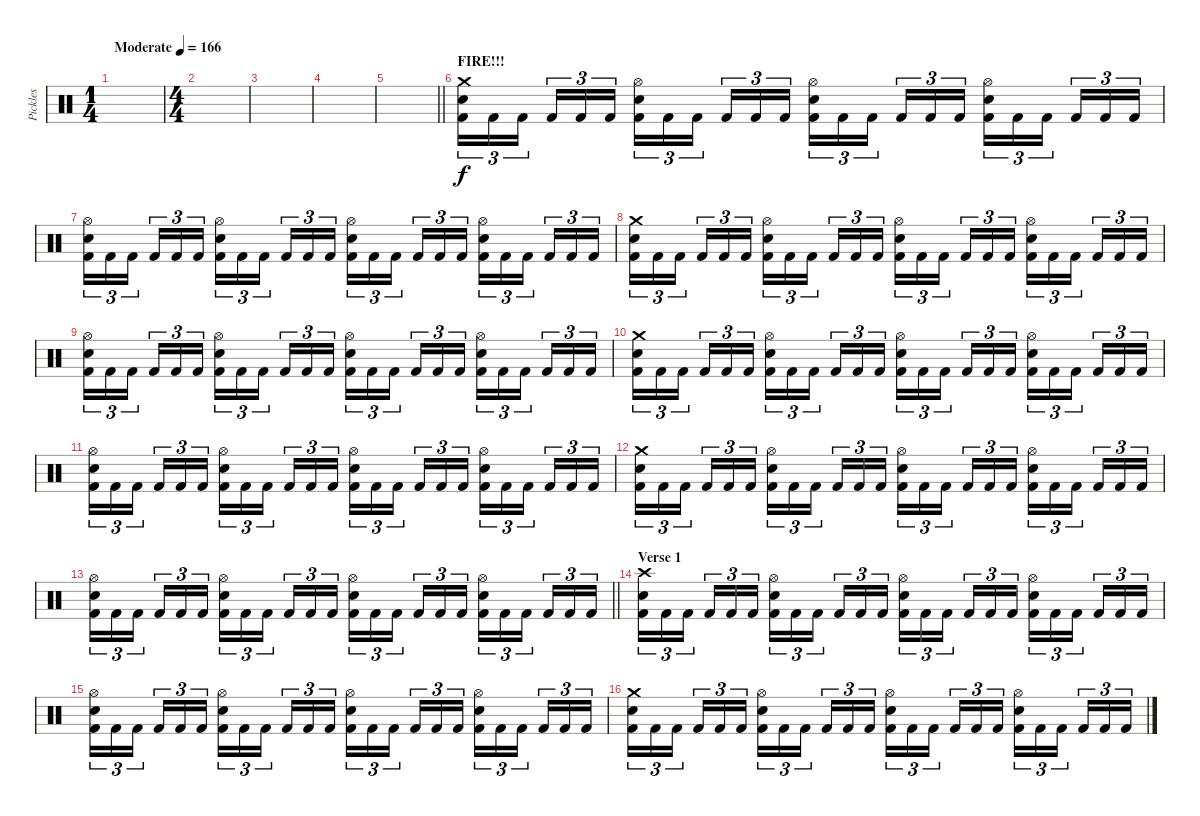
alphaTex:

\track ("Pickles" "Pickles") {instrument percussion}
\staff {score}
\articulation defaults
\ts (1 4)
\tempo (166 "Moderate")
\clef neutral
\ks c
|
\ts (4 4)
|
|
|
\barLineRight lightlight
|
\section ("" "FIRE!!!")
("Crash medium (hit)" "Snare (hit) 2" "Kick (hit) 2").16{tu (3 2)} "Kick (hit) 2".16{tu (3 2)} "Kick (hit) 2".16{tu (3 2) beam splitsecondary} "Kick (hit) 2".16{tu (3 2)} "Kick (hit) 2".16{tu (3 2)} "Kick (hit) 2".16{tu (3 2)} ("Hi-Hat (open)" "Snare (hit) 2" "Kick (hit) 2").16{tu (3 2)} "Kick (hit) 2".16{tu (3 2)} "Kick (hit) 2".16{tu (3 2) beam splitsecondary} "Kick (hit) 2".16{tu (3 2)} "Kick (hit) 2".16{tu (3 2)} "Kick (hit) 2".16{tu (3 2)} ("Hi-Hat (open)" "Snare (hit) 2" "Kick (hit) 2").16{tu (3 2)} "Kick (hit) 2".16{tu (3 2)} "Kick (hit) 2".16{tu (3 2) beam splitsecondary} "Kick (hit) 2".16{tu (3 2)} "Kick (hit) 2".16{tu (3 2)} "Kick (hit) 2".16{tu (3 2)} ("Hi-Hat (open)" "Snare (hit) 2" "Kick (hit) 2").16{tu (3 2)} "Kick (hit) 2".16{tu (3 2)} "Kick (hit) 2".16{tu (3 2) beam splitsecondary} "Kick (hit) 2".16{tu (3 2)} "Kick (hit) 2".16{tu (3 2)} "Kick (hit) 2".16{tu (3 2)} |
("Hi-Hat (open)" "Snare (hit) 2" "Kick (hit) 2").16{tu (3 2)} "Kick (hit) 2".16{tu (3 2)} "Kick (hit) 2".16{tu (3 2) beam splitsecondary} "Kick (hit) 2".16{tu (3 2)} "Kick (hit) 2".16{tu (3 2)} "Kick (hit) 2".16{tu (3 2)} ("Hi-Hat (open)" "Snare (hit) 2" "Kick (hit) 2").16{tu (3 2)} "Kick (hit) 2".16{tu (3 2)} "Kick (hit) 2".16{tu (3 2) beam splitsecondary} "Kick (hit) 2".16{tu (3 2)} "Kick (hit) 2".16{tu (3 2)} "Kick (hit) 2".16{tu (3 2)} ("Hi-Hat (open)" "Snare (hit) 2" "Kick (hit) 2").16{tu (3 2)} "Kick (hit) 2".16{tu (3 2)} "Kick (hit) 2".16{tu (3 2) beam splitsecondary} "Kick (hit) 2".16{tu (3 2)} "Kick (hit) 2".16{tu (3 2)} "Kick (hit) 2".16{tu (3 2)} ("Hi-Hat (open)" "Snare (hit) 2" "Kick (hit) 2").16{tu (3 2)} "Kick (hit) 2".16{tu (3 2)} "Kick (hit) 2".16{tu (3 2) beam splitsecondary} "Kick (hit) 2".16{tu (3 2)} "Kick (hit) 2".16{tu (3 2)} "Kick (hit) 2".16{tu (3 2)} |
("Crash medium (hit)" "Snare (hit) 2" "Kick (hit) 2").16{tu (3 2)} "Kick (hit) 2".16{tu (3 2)} "Kick (hit) 2".16{tu (3 2) beam splitsecondary} "Kick (hit) 2".16{tu (3 2)} "Kick (hit) 2".16{tu (3 2)} "Kick (hit) 2".16{tu (3 2)} ("Hi-Hat (open)" "Snare (hit) 2" "Kick (hit) 2").16{tu (3 2)} "Kick (hit) 2".16{tu (3 2)} "Kick (hit) 2".16{tu (3 2) beam splitsecondary} "Kick (hit) 2".16{tu (3 2)} "Kick (hit) 2".16{tu (3 2)} "Kick (hit) 2".16{tu (3 2)} ("Hi-Hat (open)" "Snare (hit) 2" "Kick (hit) 2").16{tu (3 2)} "Kick (hit) 2".16{tu (3 2)} "Kick (hit) 2".16{tu (3 2) beam splitsecondary} "Kick (hit) 2".16{tu (3 2)} "Kick (hit) 2".16{tu (3 2)} "Kick (hit) 2".16{tu (3 2)} ("Hi-Hat (open)" "Snare (hit) 2" "Kick (hit) 2").16{tu (3 2)} "Kick (hit) 2".16{tu (3 2)} "Kick (hit) 2".16{tu (3 2) beam splitsecondary} "Kick (hit) 2".16{tu (3 2)} "Kick (hit) 2".16{tu (3 2)} "Kick (hit) 2".16{tu (3 2)} |
("Hi-Hat (open)" "Snare (hit) 2" "Kick (hit) 2").16{tu (3 2)} "Kick (hit) 2".16{tu (3 2)} "Kick (hit) 2".16{tu (3 2) beam splitsecondary} "Kick (hit) 2".16{tu (3 2)} "Kick (hit) 2".16{tu (3 2)} "Kick (hit) 2".16{tu (3 2)} ("Hi-Hat (open)" "Snare (hit) 2" "Kick (hit) 2").16{tu (3 2)} "Kick (hit) 2".16{tu (3 2)} "Kick (hit) 2".16{tu (3 2) beam splitsecondary} "Kick (hit) 2".16{tu (3 2)} "Kick (hit) 2".16{tu (3 2)} "Kick (hit) 2".16{tu (3 2)} ("Hi-Hat (open)" "Snare (hit) 2" "Kick (hit) 2").16{tu (3 2)} "Kick (hit) 2".16{tu (3 2)} "Kick (hit) 2".16{tu (3 2) beam splitsecondary} "Kick (hit) 2".16{tu (3 2)} "Kick (hit) 2".16{tu (3 2)} "Kick (hit) 2".16{tu (3 2)} ("Hi-Hat (open)" "Snare (hit) 2" "Kick (hit) 2").16{tu (3 2)} "Kick (hit) 2".16{tu (3 2)} "Kick (hit) 2".16{tu (3 2) beam splitsecondary} "Kick (hit) 2".16{tu (3 2)} "Kick (hit) 2".16{tu (3 2)} "Kick (hit) 2".16{tu (3 2)} |
("Crash medium (hit)" "Snare (hit) 2" "Kick (hit) 2").16{tu (3 2)} "Kick (hit) 2".16{tu (3 2)} "Kick (hit) 2".16{tu (3 2) beam splitsecondary} "Kick (hit) 2".16{tu (3 2)} "Kick (hit) 2".16{tu (3 2)} "Kick (hit) 2".16{tu (3 2)} ("Hi-Hat (open)" "Snare (hit) 2" "Kick (hit) 2").16{tu (3 2)} "Kick (hit) 2".16{tu (3 2)} "Kick (hit) 2".16{tu (3 2) beam splitsecondary} "Kick (hit) 2".16{tu (3 2)} "Kick (hit) 2".16{tu (3 2)} "Kick (hit) 2".16{tu (3 2)} ("Hi-Hat (open)" "Snare (hit) 2" "Kick (hit) 2").16{tu (3 2)} "Kick (hit) 2".16{tu (3 2)} "Kick (hit) 2".16{tu (3 2) beam splitsecondary} "Kick (hit) 2".16{tu (3 2)} "Kick (hit) 2".16{tu (3 2)} "Kick (hit) 2".16{tu (3 2)} ("Hi-Hat (open)" "Snare (hit) 2" "Kick (hit) 2").16{tu (3 2)} "Kick (hit) 2".16{tu (3 2)} "Kick (hit) 2".16{tu (3 2) beam splitsecondary} "Kick (hit) 2".16{tu (3 2)} "Kick (hit) 2".16{tu (3 2)} "Kick (hit) 2".16{tu (3 2)} |
("Hi-Hat (open)" "Snare (hit) 2" "Kick (hit) 2").16{tu (3 2)} "Kick (hit) 2".16{tu (3 2)} "Kick (hit) 2".16{tu (3 2) beam splitsecondary} "Kick (hit) 2".16{tu (3 2)} "Kick (hit) 2".16{tu (3 2)} "Kick (hit) 2".16{tu (3 2)} ("Hi-Hat (open)" "Snare (hit) 2" "Kick (hit) 2").16{tu (3 2)} "Kick (hit) 2".16{tu (3 2)} "Kick (hit) 2".16{tu (3 2) beam splitsecondary} "Kick (hit) 2".16{tu (3 2)} "Kick (hit) 2".16{tu (3 2)} "Kick (hit) 2".16{tu (3 2)} ("Hi-Hat (open)" "Snare (hit) 2" "Kick (hit) 2").16{tu (3 2)} "Kick (hit) 2".16{tu (3 2)} "Kick (hit) 2".16{tu (3 2) beam splitsecondary} "Kick (hit) 2".16{tu (3 2)} "Kick (hit) 2".16{tu (3 2)} "Kick (hit) 2".16{tu (3 2)} ("Hi-Hat (open)" "Snare (hit) 2" "Kick (hit) 2").16{tu (3 2)} "Kick (hit) 2".16{tu (3 2)} "Kick (hit) 2".16{tu (3 2) beam splitsecondary} "Kick (hit) 2".16{tu (3 2)} "Kick (hit) 2".16{tu (3 2)} "Kick (hit) 2".16{tu (3 2)} |
("Crash medium (hit)" "Snare (hit) 2" "Kick (hit) 2").16{tu (3 2)} "Kick (hit) 2".16{tu (3 2)} "Kick (hit) 2".16{tu (3 2) beam splitsecondary} "Kick (hit) 2".16{tu (3 2)} "Kick (hit) 2".16{tu (3 2)} "Kick (hit) 2".16{tu (3 2)} ("Hi-Hat (open)" "Snare (hit) 2" "Kick (hit) 2").16{tu (3 2)} "Kick (hit) 2".16{tu (3 2)} "Kick (hit) 2".16{tu (3 2) beam splitsecondary} "Kick (hit) 2".16{tu (3 2)} "Kick (hit) 2".16{tu (3 2)} "Kick (hit) 2".16{tu (3 2)} ("Hi-Hat (open)" "Snare (hit) 2" "Kick (hit) 2").16{tu (3 2)} "Kick (hit) 2".16{tu (3 2)} "Kick (hit) 2".16{tu (3 2) beam splitsecondary} "Kick (hit) 2".16{tu (3 2)} "Kick (hit) 2".16{tu (3 2)} "Kick (hit) 2".16{tu (3 2)} ("Hi-Hat (open)" "Snare (hit) 2" "Kick (hit) 2").16{tu (3 2)} "Kick (hit) 2".16{tu (3 2)} "Kick (hit) 2".16{tu (3 2) beam splitsecondary} "Kick (hit) 2".16{tu (3 2)} "Kick (hit) 2".16{tu (3 2)} "Kick (hit) 2".16{tu (3 2)} |
\barLineRight lightlight
("Hi-Hat (open)" "Snare (hit) 2" "Kick (hit) 2").16{tu (3 2)} "Kick (hit) 2".16{tu (3 2)} "Kick (hit) 2".16{tu (3 2) beam splitsecondary} "Kick (hit) 2".16{tu (3 2)} "Kick (hit) 2".16{tu (3 2)} "Kick (hit) 2".16{tu (3 2)} ("Hi-Hat (open)" "Snare (hit) 2" "Kick (hit) 2").16{tu (3 2)} "Kick (hit) 2".16{tu (3 2)} "Kick (hit) 2".16{tu (3 2) beam splitsecondary} "Kick (hit) 2".16{tu (3 2)} "Kick (hit) 2".16{tu (3 2)} "Kick (hit) 2".16{tu (3 2)} ("Hi-Hat (open)" "Snare (hit) 2" "Kick (hit) 2").16{tu (3 2)} "Kick (hit) 2".16{tu (3 2)} "Kick (hit) 2".16{tu (3 2) beam splitsecondary} "Kick (hit) 2".16{tu (3 2)} "Kick (hit) 2".16{tu (3 2)} "Kick (hit) 2".16{tu (3 2)} ("Hi-Hat (open)" "Snare (hit) 2" "Kick (hit) 2").16{tu (3 2)} "Kick (hit) 2".16{tu (3 2)} "Kick (hit) 2".16{tu (3 2) beam splitsecondary} "Kick (hit) 2".16{tu (3 2)} "Kick (hit) 2".16{tu (3 2)} "Kick (hit) 2".16{tu (3 2)} |
\section ("" "Verse 1")
("Crash high (hit)" "Snare (hit) 2" "Kick (hit) 2").16{tu (3 2)} "Kick (hit) 2".16{tu (3 2)} "Kick (hit) 2".16{tu (3 2) beam splitsecondary} "Kick (hit) 2".16{tu (3 2)} "Kick (hit) 2".16{tu (3 2)} "Kick (hit) 2".16{tu (3 2)} ("Hi-Hat (open)" "Snare (hit) 2" "Kick (hit) 2").16{tu (3 2)} "Kick (hit) 2".16{tu (3 2)} "Kick (hit) 2".16{tu (3 2) beam splitsecondary} "Kick (hit) 2".16{tu (3 2)} "Kick (hit) 2".16{tu (3 2)} "Kick (hit) 2".16{tu (3 2)} ("Hi-Hat (open)" "Snare (hit) 2" "Kick (hit) 2").16{tu (3 2)} "Kick (hit) 2".16{tu (3 2)} "Kick (hit) 2".16{tu (3 2) beam splitsecondary} "Kick (hit) 2".16{tu (3 2)} "Kick (hit) 2".16{tu (3 2)} "Kick (hit) 2".16{tu (3 2)} ("Hi-Hat (open)" "Snare (hit) 2" "Kick (hit) 2").16{tu (3 2)} "Kick (hit) 2".16{tu (3 2)} "Kick (hit) 2".16{tu (3 2) beam splitsecondary} "Kick (hit) 2".16{tu (3 2)} "Kick (hit) 2".16{tu (3 2)} "Kick (hit) 2".16{tu (3 2)} |
("Hi-Hat (open)" "Snare (hit) 2" "Kick (hit) 2").16{tu (3 2)} "Kick (hit) 2".16{tu (3 2)} "Kick (hit) 2".16{tu (3 2) beam splitsecondary} "Kick (hit) 2".16{tu (3 2)} "Kick (hit) 2".16{tu (3 2)} "Kick (hit) 2".16{tu (3 2)} ("Hi-Hat (open)" "Snare (hit) 2" "Kick (hit) 2").16{tu (3 2)} "Kick (hit) 2".16{tu (3 2)} "Kick (hit) 2".16{tu (3 2) beam splitsecondary} "Kick (hit) 2".16{tu (3 2)} "Kick (hit) 2".16{tu (3 2)} "Kick (hit) 2".16{tu (3 2)} ("Hi-Hat (open)" "Snare (hit) 2" "Kick (hit) 2").16{tu (3 2)} "Kick (hit) 2".16{tu (3 2)} "Kick (hit) 2".16{tu (3 2) beam splitsecondary} "Kick (hit) 2".16{tu (3 2)} "Kick (hit) 2".16{tu (3 2)} "Kick (hit) 2".16{tu (3 2)} ("Hi-Hat (open)" "Snare (hit) 2" "Kick (hit) 2").16{tu (3 2)} "Kick (hit) 2".16{tu (3 2)} "Kick (hit) 2".16{tu (3 2) beam splitsecondary} "Kick (hit) 2".16{tu (3 2)} "Kick (hit) 2".16{tu (3 2)} "Kick (hit) 2".16{tu (3 2)} |
("Crash medium (hit)" "Snare (hit) 2" "Kick (hit) 2").16{tu (3 2)} "Kick (hit) 2".16{tu (3 2)} "Kick (hit) 2".16{tu (3 2) beam splitsecondary} "Kick (hit) 2".16{tu (3 2)} "Kick (hit) 2".16{tu (3 2)} "Kick (hit) 2".16{tu (3 2)} ("Hi-Hat (open)" "Snare (hit) 2" "Kick (hit) 2").16{tu (3 2)} "Kick (hit) 2".16{tu (3 2)} "Kick (hit) 2".16{tu (3 2) beam splitsecondary} "Kick (hit) 2".16{tu (3 2)} "Kick (hit) 2".16{tu (3 2)} "Kick (hit) 2".16{tu (3 2)} ("Hi-Hat (open)" "Snare (hit) 2" "Kick (hit) 2").16{tu (3 2)} "Kick (hit) 2".16{tu (3 2)} "Kick (hit) 2".16{tu (3 2) beam splitsecondary} "Kick (hit) 2".16{tu (3 2)} "Kick (hit) 2".16{tu (3 2)} "Kick (hit) 2".16{tu (3 2)} ("Hi-Hat (open)" "Snare (hit) 2" "Kick (hit) 2").16{tu (3 2)} "Kick (hit) 2".16{tu (3 2)} "Kick (hit) 2".16{tu (3 2) beam splitsecondary} "Kick (hit) 2".16{tu (3 2)} "Kick (hit) 2".16{tu (3 2)} "Kick (hit) 2".16{tu (3 2)}
